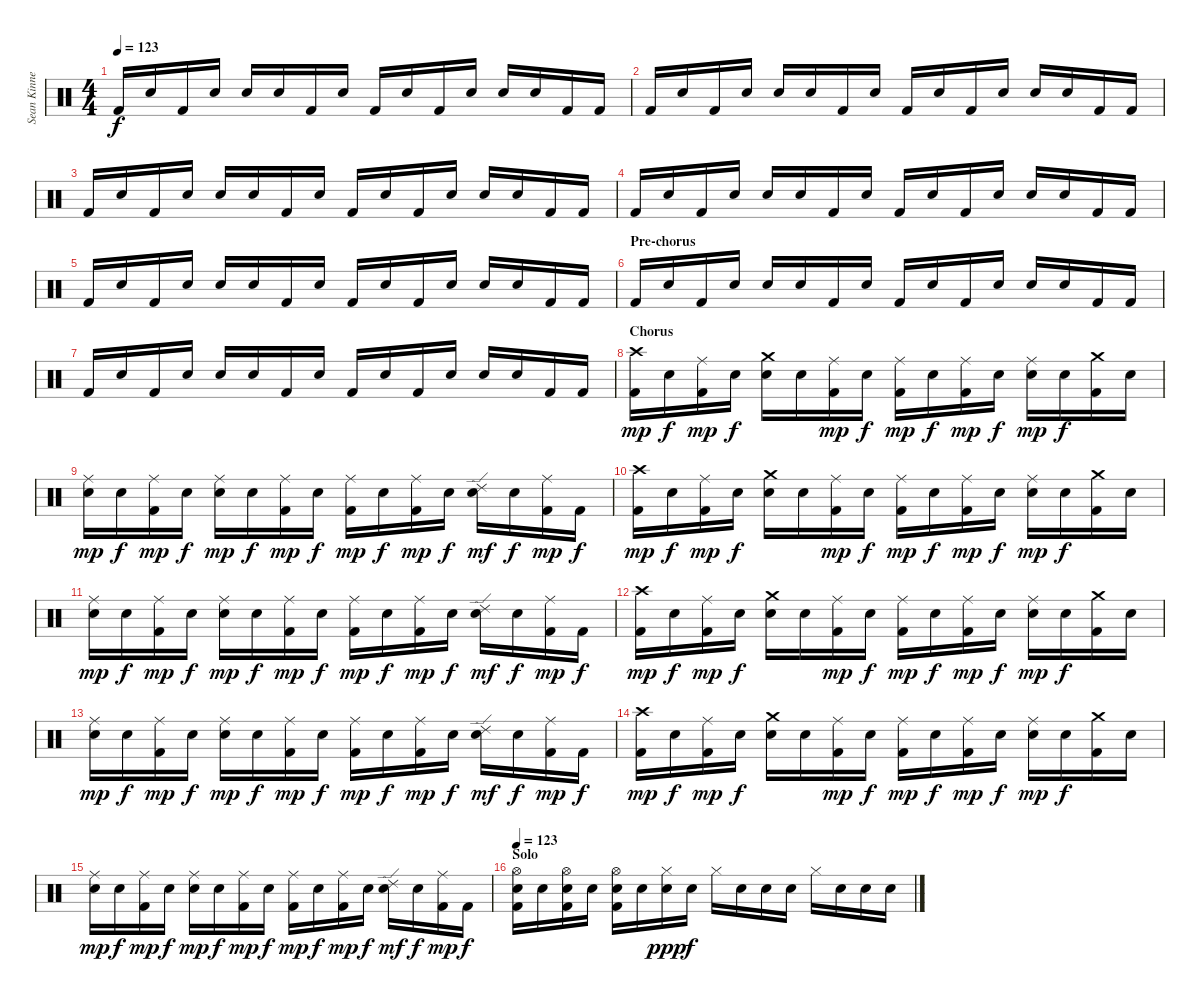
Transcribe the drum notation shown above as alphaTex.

\track ("Sean Kinney - Drums" "Sean Kinne") {instrument percussion}
\staff {score}
\articulation defaults
\ts (4 4)
\tempo 123
\clef neutral
\ks c "Kick (hit) 2".16{dy f} "Snare (hit)".16 "Kick (hit) 2".16 "Snare (hit)".16 "Electric Snare (hit)".16 "Snare (hit)".16 "Kick (hit) 2".16 "Snare (hit)".16 "Kick (hit) 2".16 "Snare (hit)".16 "Kick (hit) 2".16 "Snare (hit)".16 "Electric Snare (hit)".16 "Snare (hit)".16 "Kick (hit) 2".16 "Kick (hit) 2".16
|
"Kick (hit) 2".16 "Snare (hit)".16 "Kick (hit) 2".16 "Snare (hit)".16 "Electric Snare (hit)".16 "Snare (hit)".16 "Kick (hit) 2".16 "Snare (hit)".16 "Kick (hit) 2".16 "Snare (hit)".16 "Kick (hit) 2".16 "Snare (hit)".16 "Electric Snare (hit)".16 "Snare (hit)".16 "Kick (hit) 2".16 "Kick (hit) 2".16 |
"Kick (hit) 2".16 "Snare (hit)".16 "Kick (hit) 2".16 "Snare (hit)".16 "Electric Snare (hit)".16 "Snare (hit)".16 "Kick (hit) 2".16 "Snare (hit)".16 "Kick (hit) 2".16 "Snare (hit)".16 "Kick (hit) 2".16 "Snare (hit)".16 "Electric Snare (hit)".16 "Snare (hit)".16 "Kick (hit) 2".16 "Kick (hit) 2".16 |
"Kick (hit) 2".16 "Snare (hit)".16 "Kick (hit) 2".16 "Snare (hit)".16 "Electric Snare (hit)".16 "Snare (hit)".16 "Kick (hit) 2".16 "Snare (hit)".16 "Kick (hit) 2".16 "Snare (hit)".16 "Kick (hit) 2".16 "Snare (hit)".16 "Electric Snare (hit)".16 "Snare (hit)".16 "Kick (hit) 2".16 "Kick (hit) 2".16 |
"Kick (hit) 2".16 "Snare (hit)".16 "Kick (hit) 2".16 "Snare (hit)".16 "Electric Snare (hit)".16 "Snare (hit)".16 "Kick (hit) 2".16 "Snare (hit)".16 "Kick (hit) 2".16 "Snare (hit)".16 "Kick (hit) 2".16 "Snare (hit)".16 "Electric Snare (hit)".16 "Snare (hit)".16 "Kick (hit) 2".16 "Kick (hit) 2".16 |
\section ("" "Pre-chorus")
"Kick (hit) 2".16 "Snare (hit)".16 "Kick (hit) 2".16 "Snare (hit)".16 "Electric Snare (hit)".16 "Snare (hit)".16 "Kick (hit) 2".16 "Snare (hit)".16 "Kick (hit) 2".16 "Snare (hit)".16 "Kick (hit) 2".16 "Snare (hit)".16 "Electric Snare (hit)".16 "Snare (hit)".16 "Kick (hit) 2".16 "Kick (hit) 2".16 |
"Kick (hit) 2".16 "Snare (hit)".16 "Kick (hit) 2".16 "Snare (hit)".16 "Electric Snare (hit)".16 "Snare (hit)".16 "Kick (hit) 2".16 "Snare (hit)".16 "Kick (hit) 2".16 "Snare (hit)".16 "Kick (hit) 2".16 "Snare (hit)".16 "Electric Snare (hit)".16 "Snare (hit)".16 "Kick (hit) 2".16 "Kick (hit) 2".16 |
\section ("" "Chorus")
("Crash high (hit)" "Kick (hit) 2").16{dy mp volume 16 balance 8} "Snare (hit)".16{dy f} ("Ride (middle)" "Kick (hit) 2").16{dy mp} "Snare (hit)".16{dy f} ("Crash medium (hit)" "Electric Snare (hit)").16 "Snare (hit)".16 ("Ride (middle)" "Kick (hit) 2").16{dy mp} "Snare (hit)".16{dy f} ("Ride (middle)" "Kick (hit) 2").16{dy mp} "Snare (hit)".16{dy f} ("Ride (middle)" "Kick (hit) 2").16{dy mp} "Snare (hit)".16{dy f} ("Ride (middle)" "Electric Snare (hit)").16{dy mp} "Snare (hit)".16{dy f} ("Crash medium (hit)" "Kick (hit) 2").16 "Snare (hit)".16 |
("Ride (middle)" "Snare (hit)").16{dy mp} "Snare (hit)".16{dy f} ("Ride (middle)" "Kick (hit) 2").16{dy mp} "Snare (hit)".16{dy f} ("Ride (middle)" "Electric Snare (hit)").16{dy mp} "Snare (hit)".16{dy f} ("Ride (middle)" "Kick (hit) 2").16{dy mp} "Snare (hit)".16{dy f} ("Ride (middle)" "Kick (hit) 2").16{dy mp} "Snare (hit)".16{dy f} ("Ride (middle)" "Kick (hit) 2").16{dy mp} "Snare (hit)".16{dy f} ("Ride (edge) 2" "Electric Snare (hit)").16{dy mf} "Snare (hit)".16{dy f} ("Ride (middle)" "Kick (hit) 2").16{dy mp} "Kick (hit) 2".16{dy f} |
("Crash high (hit)" "Kick (hit) 2").16{dy mp} "Snare (hit)".16{dy f} ("Ride (middle)" "Kick (hit) 2").16{dy mp} "Snare (hit)".16{dy f} ("Crash medium (hit)" "Electric Snare (hit)").16 "Snare (hit)".16 ("Ride (middle)" "Kick (hit) 2").16{dy mp} "Snare (hit)".16{dy f} ("Ride (middle)" "Kick (hit) 2").16{dy mp} "Snare (hit)".16{dy f} ("Ride (middle)" "Kick (hit) 2").16{dy mp} "Snare (hit)".16{dy f} ("Ride (middle)" "Electric Snare (hit)").16{dy mp} "Snare (hit)".16{dy f} ("Crash medium (hit)" "Kick (hit) 2").16 "Snare (hit)".16 |
("Ride (middle)" "Snare (hit)").16{dy mp} "Snare (hit)".16{dy f} ("Ride (middle)" "Kick (hit) 2").16{dy mp} "Snare (hit)".16{dy f} ("Ride (middle)" "Electric Snare (hit)").16{dy mp} "Snare (hit)".16{dy f} ("Ride (middle)" "Kick (hit) 2").16{dy mp} "Snare (hit)".16{dy f} ("Ride (middle)" "Kick (hit) 2").16{dy mp} "Snare (hit)".16{dy f} ("Ride (middle)" "Kick (hit) 2").16{dy mp} "Snare (hit)".16{dy f} ("Ride (edge) 2" "Electric Snare (hit)").16{dy mf} "Snare (hit)".16{dy f} ("Ride (middle)" "Kick (hit) 2").16{dy mp} "Kick (hit) 2".16{dy f} |
("Crash high (hit)" "Kick (hit) 2").16{dy mp} "Snare (hit)".16{dy f} ("Ride (middle)" "Kick (hit) 2").16{dy mp} "Snare (hit)".16{dy f} ("Crash medium (hit)" "Electric Snare (hit)").16 "Snare (hit)".16 ("Ride (middle)" "Kick (hit) 2").16{dy mp} "Snare (hit)".16{dy f} ("Ride (middle)" "Kick (hit) 2").16{dy mp} "Snare (hit)".16{dy f} ("Ride (middle)" "Kick (hit) 2").16{dy mp} "Snare (hit)".16{dy f} ("Ride (middle)" "Electric Snare (hit)").16{dy mp} "Snare (hit)".16{dy f} ("Crash medium (hit)" "Kick (hit) 2").16 "Snare (hit)".16 |
("Ride (middle)" "Snare (hit)").16{dy mp} "Snare (hit)".16{dy f} ("Ride (middle)" "Kick (hit) 2").16{dy mp} "Snare (hit)".16{dy f} ("Ride (middle)" "Electric Snare (hit)").16{dy mp} "Snare (hit)".16{dy f} ("Ride (middle)" "Kick (hit) 2").16{dy mp} "Snare (hit)".16{dy f} ("Ride (middle)" "Kick (hit) 2").16{dy mp} "Snare (hit)".16{dy f} ("Ride (middle)" "Kick (hit) 2").16{dy mp} "Snare (hit)".16{dy f} ("Ride (edge) 2" "Electric Snare (hit)").16{dy mf} "Snare (hit)".16{dy f} ("Ride (middle)" "Kick (hit) 2").16{dy mp} "Kick (hit) 2".16{dy f} |
("Crash high (hit)" "Kick (hit) 2").16{dy mp} "Snare (hit)".16{dy f} ("Ride (middle)" "Kick (hit) 2").16{dy mp} "Snare (hit)".16{dy f} ("Crash medium (hit)" "Electric Snare (hit)").16 "Snare (hit)".16 ("Ride (middle)" "Kick (hit) 2").16{dy mp} "Snare (hit)".16{dy f} ("Ride (middle)" "Kick (hit) 2").16{dy mp} "Snare (hit)".16{dy f} ("Ride (middle)" "Kick (hit) 2").16{dy mp} "Snare (hit)".16{dy f} ("Ride (middle)" "Electric Snare (hit)").16{dy mp} "Snare (hit)".16{dy f} ("Crash medium (hit)" "Kick (hit) 2").16 "Snare (hit)".16 |
("Ride (middle)" "Snare (hit)").16{dy mp} "Snare (hit)".16{dy f} ("Ride (middle)" "Kick (hit) 2").16{dy mp} "Snare (hit)".16{dy f} ("Ride (middle)" "Electric Snare (hit)").16{dy mp} "Snare (hit)".16{dy f} ("Ride (middle)" "Kick (hit) 2").16{dy mp} "Snare (hit)".16{dy f} ("Ride (middle)" "Kick (hit) 2").16{dy mp} "Snare (hit)".16{dy f} ("Ride (middle)" "Kick (hit) 2").16{dy mp} "Snare (hit)".16{dy f} ("Ride (edge) 2" "Electric Snare (hit)").16{dy mf} "Snare (hit)".16{dy f} ("Ride (middle)" "Kick (hit) 2").16{dy mp} "Kick (hit) 2".16{dy f} |
\section ("" "Solo")
\tempo 123
("Hi-Hat (open)" "Electric Snare (hit)" "Kick (hit) 2").16{volume 16 balance 8} "Snare (hit)".16 ("Hi-Hat (open)" "Electric Snare (hit)" "Kick (hit) 2").16 "Snare (hit)".16 ("Hi-Hat (open)" "Electric Snare (hit)" "Kick (hit) 2").16 "Snare (hit)".16 ("Hi-Hat (closed)" "Snare (hit)").16{dy ppp} "Snare (hit)".16{dy f} "Hi-Hat (closed)".16 "Snare (hit)".16 "Snare (hit)".16 "Snare (hit)".16 "Hi-Hat (closed)".16 "Snare (hit)".16 "Snare (hit)".16 "Snare (hit)".16
